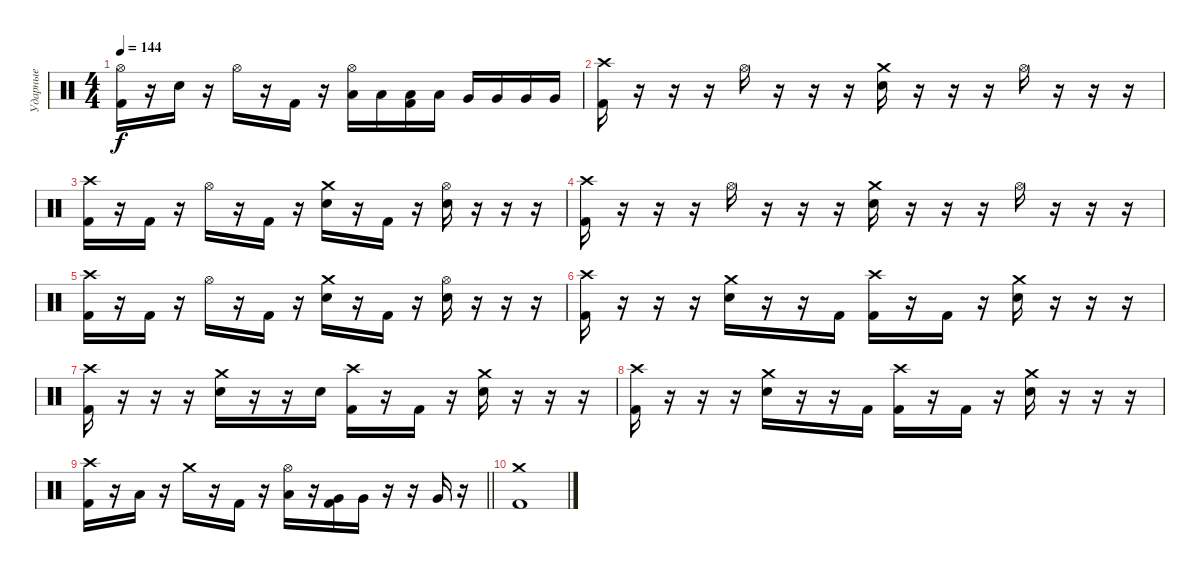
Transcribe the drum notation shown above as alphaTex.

\track ("Ударные" "Ударные") {instrument percussion}
\staff {score}
\articulation defaults
\ts (4 4)
\tempo 144
\clef neutral
\ks c
("Hi-Hat (open)" "Kick (hit) 2").16{dy f} r.16 "Electric Snare (hit)".16 r.16 "Hi-Hat (open)".16 r.16 "Kick (hit) 2".16 r.16 ("Hi-Hat (open)" "Low Tom (hit)").16 "Low Tom (hit)".16 ("Low Tom (hit)" "Kick (hit) 2").16 "Low Tom (hit)".16 "Very Low Tom (hit)".16 "Very Low Tom (hit)".16 "Very Low Tom (hit)".16 "Very Low Tom (hit)".16 |
("Crash high (hit)" "Kick (hit) 2").16 r.16 r.16 r.16 "Hi-Hat (open)".16 r.16 r.16 r.16 ("Crash medium (hit)" "Electric Snare (hit)").16 r.16 r.16 r.16 "Hi-Hat (open)".16 r.16 r.16 r.16 |
("Crash high (hit)" "Kick (hit) 2").16 r.16 "Kick (hit) 2".16 r.16 "Hi-Hat (open)".16 r.16 "Kick (hit) 2".16 r.16 ("Crash medium (hit)" "Electric Snare (hit)").16 r.16 "Kick (hit) 2".16 r.16 ("Hi-Hat (open)" "Electric Snare (hit)").16 r.16 r.16 r.16 |
("Crash high (hit)" "Kick (hit) 2").16 r.16 r.16 r.16 "Hi-Hat (open)".16 r.16 r.16 r.16 ("Crash medium (hit)" "Electric Snare (hit)").16 r.16 r.16 r.16 "Hi-Hat (open)".16 r.16 r.16 r.16 |
("Crash high (hit)" "Kick (hit) 2").16 r.16 "Kick (hit) 2".16 r.16 "Hi-Hat (open)".16 r.16 "Kick (hit) 2".16 r.16 ("Crash medium (hit)" "Electric Snare (hit)").16 r.16 "Kick (hit) 2".16 r.16 ("Hi-Hat (open)" "Electric Snare (hit)").16 r.16 r.16 r.16 |
("Crash high (hit)" "Kick (hit) 2").16 r.16 r.16 r.16 ("Crash medium (hit)" "Electric Snare (hit)").16 r.16 r.16 "Kick (hit) 2".16 ("Crash high (hit)" "Kick (hit) 2").16 r.16 "Kick (hit) 2".16 r.16 ("Crash medium (hit)" "Electric Snare (hit)").16 r.16 r.16 r.16 |
("Crash high (hit)" "Kick (hit) 2").16 r.16 r.16 r.16 ("Crash medium (hit)" "Electric Snare (hit)").16 r.16 r.16 "Electric Snare (hit)".16 ("Crash high (hit)" "Kick (hit) 2").16 r.16 "Kick (hit) 2".16 r.16 ("Crash medium (hit)" "Electric Snare (hit)").16 r.16 r.16 r.16 |
("Crash high (hit)" "Kick (hit) 2").16 r.16 r.16 r.16 ("Crash medium (hit)" "Electric Snare (hit)").16 r.16 r.16 "Kick (hit) 2".16 ("Crash high (hit)" "Kick (hit) 2").16 r.16 "Kick (hit) 2".16 r.16 ("Crash medium (hit)" "Electric Snare (hit)").16 r.16 r.16 r.16 |
\barLineRight lightlight
("Crash high (hit)" "Kick (hit) 2").16 r.16 "Low Tom (hit)".16 r.16 "Crash medium (hit)".16 r.16 "Kick (hit) 2".16 r.16 ("Hi-Hat (open)" "Low Tom (hit)").16 r.16 ("Very Low Tom (hit)" "Kick (hit) 2").16 "Very Low Tom (hit)".16 r.16 r.16 "Very Low Tom (hit)".16 r.16 |
("Crash medium (hit)" "Kick (hit) 2").1
